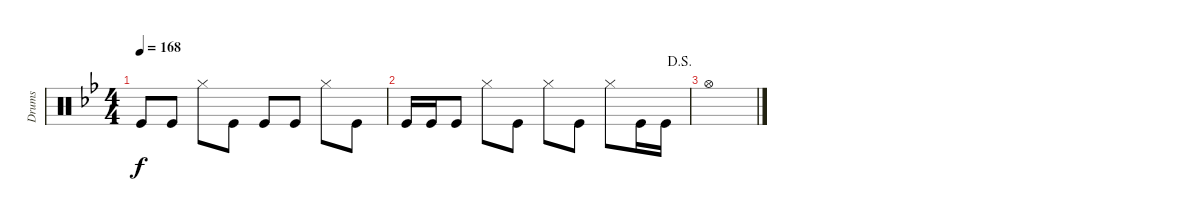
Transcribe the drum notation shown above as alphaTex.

\track ("Drums" "Drums") {instrument percussion}
\staff {score}
\articulation defaults
\ts (4 4)
\tempo 168
\clef neutral
\ks bb "Kick (hit)".8{dy f} "Kick (hit)".8 "Hi-Hat (closed)".8 "Kick (hit)".8 "Kick (hit)".8 "Kick (hit)".8 "Hi-Hat (closed)".8 "Kick (hit)".8
|
\jump dalsegno "Kick (hit)".16 "Kick (hit)".16 "Kick (hit)".8 "Hi-Hat (closed)".8 "Kick (hit)".8 "Hi-Hat (closed)".8 "Kick (hit)".8 "Hi-Hat (closed)".8 "Kick (hit)".16 "Kick (hit)".16
|
"Hi-Hat (open)".1
